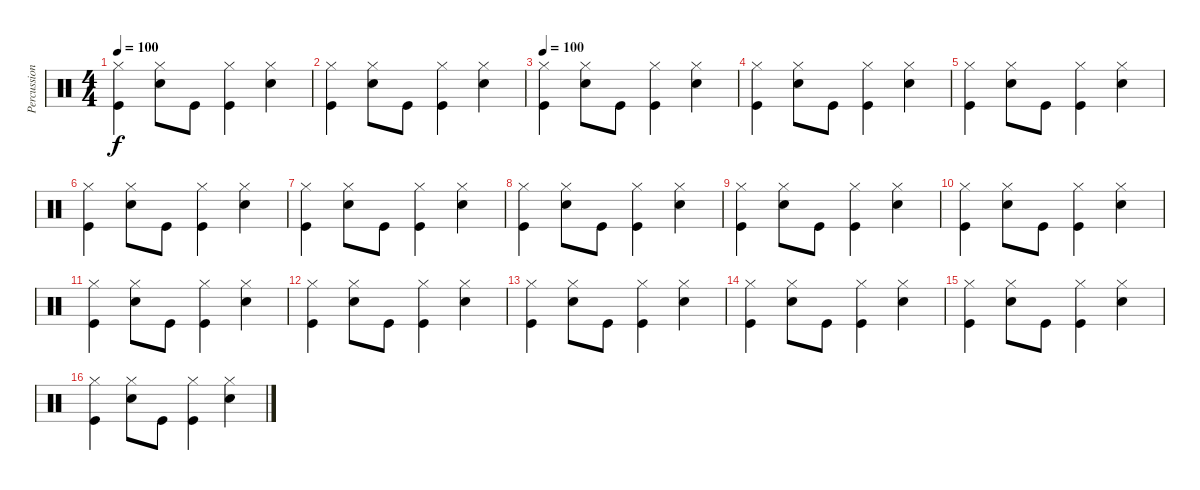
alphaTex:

\track ("Percussion" "Percussion") {instrument percussion}
\staff {score}
\articulation defaults
\ts (4 4)
\tempo 100
\clef neutral
\ks c
("Hi-Hat (closed)" "Kick (hit)").4{dy f} ("Hi-Hat (closed)" "Snare (hit) 2").8 "Kick (hit)".8 ("Hi-Hat (closed)" "Kick (hit)").4 ("Snare (hit) 2" "Hi-Hat (closed)").4 |
("Hi-Hat (closed)" "Kick (hit)").4 ("Hi-Hat (closed)" "Snare (hit) 2").8 "Kick (hit)".8 ("Hi-Hat (closed)" "Kick (hit)").4 ("Snare (hit) 2" "Hi-Hat (closed)").4 |
\tempo 100
("Hi-Hat (closed)" "Kick (hit)").4 ("Hi-Hat (closed)" "Snare (hit) 2").8 "Kick (hit)".8 ("Hi-Hat (closed)" "Kick (hit)").4 ("Snare (hit) 2" "Hi-Hat (closed)").4 |
("Hi-Hat (closed)" "Kick (hit)").4 ("Hi-Hat (closed)" "Snare (hit) 2").8 "Kick (hit)".8 ("Hi-Hat (closed)" "Kick (hit)").4 ("Snare (hit) 2" "Hi-Hat (closed)").4 |
("Hi-Hat (closed)" "Kick (hit)").4 ("Hi-Hat (closed)" "Snare (hit) 2").8 "Kick (hit)".8 ("Hi-Hat (closed)" "Kick (hit)").4 ("Snare (hit) 2" "Hi-Hat (closed)").4 |
("Hi-Hat (closed)" "Kick (hit)").4 ("Hi-Hat (closed)" "Snare (hit) 2").8 "Kick (hit)".8 ("Hi-Hat (closed)" "Kick (hit)").4 ("Snare (hit) 2" "Hi-Hat (closed)").4 |
("Hi-Hat (closed)" "Kick (hit)").4 ("Hi-Hat (closed)" "Snare (hit) 2").8 "Kick (hit)".8 ("Hi-Hat (closed)" "Kick (hit)").4 ("Snare (hit) 2" "Hi-Hat (closed)").4 |
("Hi-Hat (closed)" "Kick (hit)").4 ("Hi-Hat (closed)" "Snare (hit) 2").8 "Kick (hit)".8 ("Hi-Hat (closed)" "Kick (hit)").4 ("Snare (hit) 2" "Hi-Hat (closed)").4 |
("Hi-Hat (closed)" "Kick (hit)").4 ("Hi-Hat (closed)" "Snare (hit) 2").8 "Kick (hit)".8 ("Hi-Hat (closed)" "Kick (hit)").4 ("Snare (hit) 2" "Hi-Hat (closed)").4 |
("Hi-Hat (closed)" "Kick (hit)").4 ("Hi-Hat (closed)" "Snare (hit) 2").8 "Kick (hit)".8 ("Hi-Hat (closed)" "Kick (hit)").4 ("Snare (hit) 2" "Hi-Hat (closed)").4 |
("Hi-Hat (closed)" "Kick (hit)").4 ("Hi-Hat (closed)" "Snare (hit) 2").8 "Kick (hit)".8 ("Hi-Hat (closed)" "Kick (hit)").4 ("Snare (hit) 2" "Hi-Hat (closed)").4 |
("Hi-Hat (closed)" "Kick (hit)").4 ("Hi-Hat (closed)" "Snare (hit) 2").8 "Kick (hit)".8 ("Hi-Hat (closed)" "Kick (hit)").4 ("Snare (hit) 2" "Hi-Hat (closed)").4 |
("Hi-Hat (closed)" "Kick (hit)").4 ("Hi-Hat (closed)" "Snare (hit) 2").8 "Kick (hit)".8 ("Hi-Hat (closed)" "Kick (hit)").4 ("Snare (hit) 2" "Hi-Hat (closed)").4 |
("Hi-Hat (closed)" "Kick (hit)").4 ("Hi-Hat (closed)" "Snare (hit) 2").8 "Kick (hit)".8 ("Hi-Hat (closed)" "Kick (hit)").4 ("Snare (hit) 2" "Hi-Hat (closed)").4 |
("Hi-Hat (closed)" "Kick (hit)").4 ("Hi-Hat (closed)" "Snare (hit) 2").8 "Kick (hit)".8 ("Hi-Hat (closed)" "Kick (hit)").4 ("Snare (hit) 2" "Hi-Hat (closed)").4 |
("Hi-Hat (closed)" "Kick (hit)").4 ("Hi-Hat (closed)" "Snare (hit) 2").8 "Kick (hit)".8 ("Hi-Hat (closed)" "Kick (hit)").4 ("Snare (hit) 2" "Hi-Hat (closed)").4
